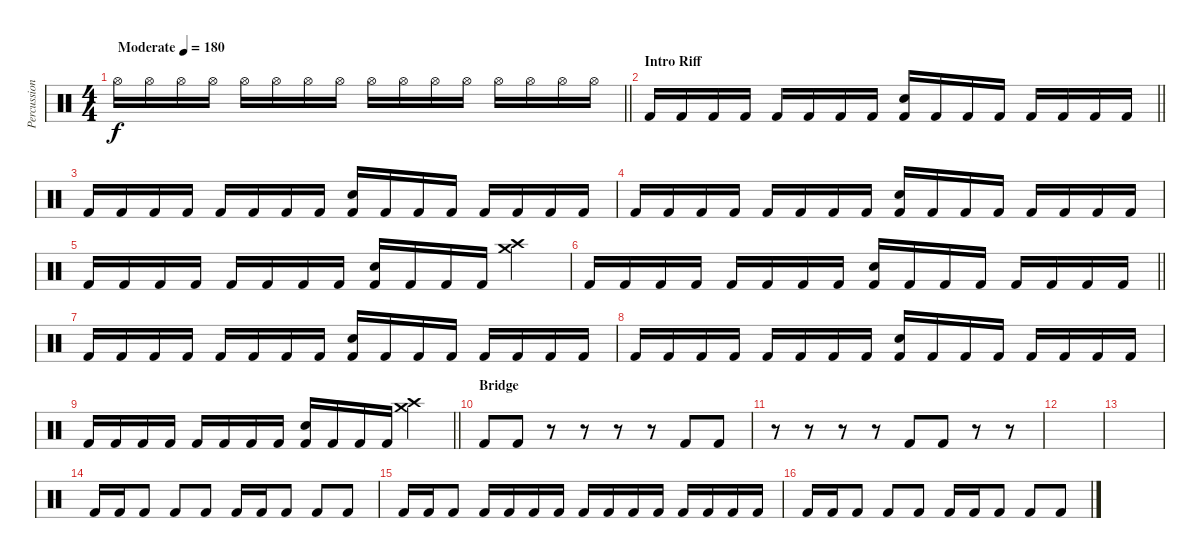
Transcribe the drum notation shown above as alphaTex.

\track ("Percussion" "Percussion") {instrument percussion}
\staff {score}
\articulation defaults
\ts (4 4)
\tempo (180 "Moderate")
\clef neutral
\barLineRight lightlight
\ks c "Hi-Hat (open)".16{dy f volume 1} "Hi-Hat (open)".16{volume 4} "Hi-Hat (open)".16{volume 6} "Hi-Hat (open)".16{volume 7} "Hi-Hat (open)".16 "Hi-Hat (open)".16 "Hi-Hat (open)".16{volume 10} "Hi-Hat (open)".16 "Hi-Hat (open)".16{volume 12} "Hi-Hat (open)".16 "Hi-Hat (open)".16 "Hi-Hat (open)".16{volume 13} "Hi-Hat (open)".16 "Hi-Hat (open)".16{volume 15} "Hi-Hat (open)".16 "Hi-Hat (open)".16
|
\section ("" "Intro Riff")
\barLineRight lightlight "Kick (hit) 2".16 "Kick (hit) 2".16 "Kick (hit) 2".16 "Kick (hit) 2".16 "Kick (hit) 2".16 "Kick (hit) 2".16 "Kick (hit) 2".16 "Kick (hit) 2".16
("Kick (hit) 2" "Electric Snare (hit)").16 "Kick (hit) 2".16 "Kick (hit) 2".16 "Kick (hit) 2".16 "Kick (hit) 2".16 "Kick (hit) 2".16 "Kick (hit) 2".16 "Kick (hit) 2".16 |
"Kick (hit) 2".16 "Kick (hit) 2".16 "Kick (hit) 2".16 "Kick (hit) 2".16 "Kick (hit) 2".16 "Kick (hit) 2".16 "Kick (hit) 2".16 "Kick (hit) 2".16 ("Kick (hit) 2" "Electric Snare (hit)").16 "Kick (hit) 2".16 "Kick (hit) 2".16 "Kick (hit) 2".16 "Kick (hit) 2".16 "Kick (hit) 2".16 "Kick (hit) 2".16 "Kick (hit) 2".16 |
"Kick (hit) 2".16 "Kick (hit) 2".16 "Kick (hit) 2".16 "Kick (hit) 2".16 "Kick (hit) 2".16 "Kick (hit) 2".16 "Kick (hit) 2".16 "Kick (hit) 2".16 ("Kick (hit) 2" "Electric Snare (hit)").16 "Kick (hit) 2".16 "Kick (hit) 2".16 "Kick (hit) 2".16 "Kick (hit) 2".16 "Kick (hit) 2".16 "Kick (hit) 2".16 "Kick (hit) 2".16 |
"Kick (hit) 2".16 "Kick (hit) 2".16 "Kick (hit) 2".16 "Kick (hit) 2".16 "Kick (hit) 2".16 "Kick (hit) 2".16 "Kick (hit) 2".16 "Kick (hit) 2".16 ("Kick (hit) 2" "Electric Snare (hit)").16 "Kick (hit) 2".16 "Kick (hit) 2".16 "Kick (hit) 2".16 ("Crash high (hit)" "Crash medium (hit)").4 |
\barLineRight lightlight "Kick (hit) 2".16 "Kick (hit) 2".16 "Kick (hit) 2".16 "Kick (hit) 2".16 "Kick (hit) 2".16 "Kick (hit) 2".16 "Kick (hit) 2".16 "Kick (hit) 2".16
("Kick (hit) 2" "Electric Snare (hit)").16 "Kick (hit) 2".16 "Kick (hit) 2".16 "Kick (hit) 2".16 "Kick (hit) 2".16 "Kick (hit) 2".16 "Kick (hit) 2".16 "Kick (hit) 2".16 |
"Kick (hit) 2".16 "Kick (hit) 2".16 "Kick (hit) 2".16 "Kick (hit) 2".16 "Kick (hit) 2".16 "Kick (hit) 2".16 "Kick (hit) 2".16 "Kick (hit) 2".16 ("Kick (hit) 2" "Electric Snare (hit)").16 "Kick (hit) 2".16 "Kick (hit) 2".16 "Kick (hit) 2".16 "Kick (hit) 2".16 "Kick (hit) 2".16 "Kick (hit) 2".16 "Kick (hit) 2".16 |
"Kick (hit) 2".16 "Kick (hit) 2".16 "Kick (hit) 2".16 "Kick (hit) 2".16 "Kick (hit) 2".16 "Kick (hit) 2".16 "Kick (hit) 2".16 "Kick (hit) 2".16 ("Kick (hit) 2" "Electric Snare (hit)").16 "Kick (hit) 2".16 "Kick (hit) 2".16 "Kick (hit) 2".16 "Kick (hit) 2".16 "Kick (hit) 2".16 "Kick (hit) 2".16 "Kick (hit) 2".16 |
\barLineRight lightlight "Kick (hit) 2".16 "Kick (hit) 2".16 "Kick (hit) 2".16 "Kick (hit) 2".16 "Kick (hit) 2".16 "Kick (hit) 2".16 "Kick (hit) 2".16 "Kick (hit) 2".16
("Kick (hit) 2" "Electric Snare (hit)").16 "Kick (hit) 2".16 "Kick (hit) 2".16 "Kick (hit) 2".16 ("Crash high (hit)" "Crash medium (hit)").4 |
\section ("" "Bridge")
"Kick (hit) 2".8 "Kick (hit) 2".8 r.8 r.8 r.8 r.8 "Kick (hit) 2".8 "Kick (hit) 2".8 |
r.8 r.8 r.8 r.8 "Kick (hit) 2".8 "Kick (hit) 2".8 r.8 r.8 |
|
|
"Kick (hit) 2".16 "Kick (hit) 2".16 "Kick (hit) 2".8 "Kick (hit) 2".8 "Kick (hit) 2".8 "Kick (hit) 2".16 "Kick (hit) 2".16 "Kick (hit) 2".8 "Kick (hit) 2".8 "Kick (hit) 2".8 |
"Kick (hit) 2".16 "Kick (hit) 2".16 "Kick (hit) 2".8 "Kick (hit) 2".16 "Kick (hit) 2".16 "Kick (hit) 2".16 "Kick (hit) 2".16 "Kick (hit) 2".16 "Kick (hit) 2".16 "Kick (hit) 2".16 "Kick (hit) 2".16 "Kick (hit) 2".16 "Kick (hit) 2".16 "Kick (hit) 2".16 "Kick (hit) 2".16 |
"Kick (hit) 2".16 "Kick (hit) 2".16 "Kick (hit) 2".8 "Kick (hit) 2".8 "Kick (hit) 2".8 "Kick (hit) 2".16 "Kick (hit) 2".16 "Kick (hit) 2".8 "Kick (hit) 2".8 "Kick (hit) 2".8
